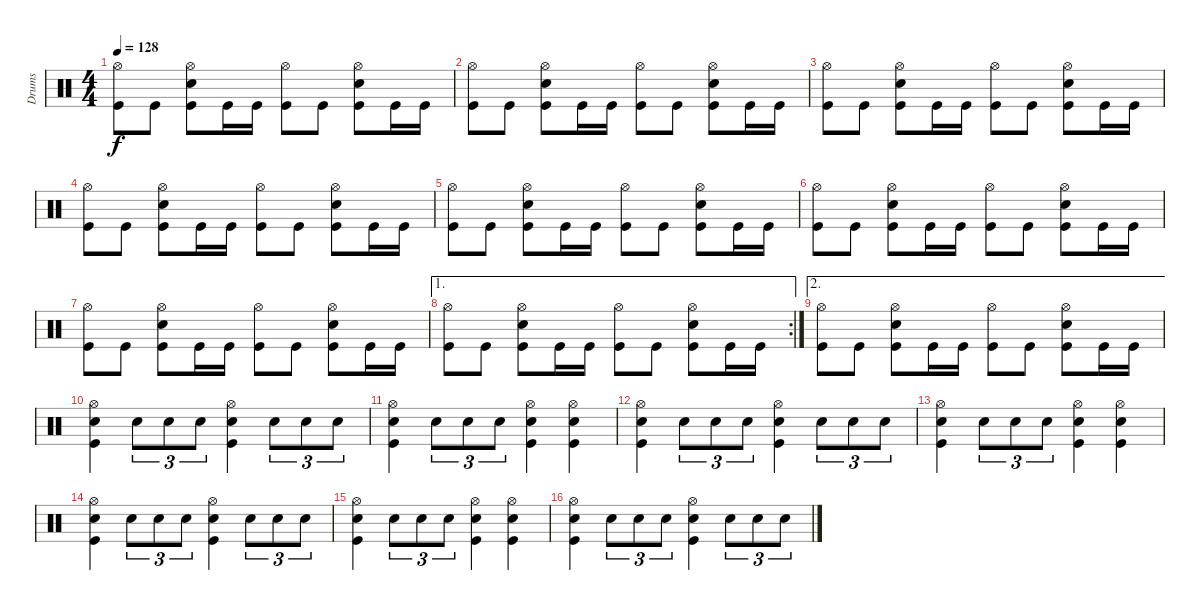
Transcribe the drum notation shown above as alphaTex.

\track ("Drums" "Drums") {instrument percussion}
\staff {score}
\articulation defaults
\ts (4 4)
\tempo 128
\clef neutral
\ks c
("Hi-Hat (open)" "Kick (hit)").8{dy f} "Kick (hit)".8 ("Hi-Hat (open)" "Snare (hit) 2" "Kick (hit)").8 "Kick (hit)".16 "Kick (hit)".16 ("Hi-Hat (open)" "Kick (hit)").8 "Kick (hit)".8 ("Hi-Hat (open)" "Snare (hit) 2" "Kick (hit)").8 "Kick (hit)".16 "Kick (hit)".16 |
("Hi-Hat (open)" "Kick (hit)").8 "Kick (hit)".8 ("Hi-Hat (open)" "Snare (hit) 2" "Kick (hit)").8 "Kick (hit)".16 "Kick (hit)".16 ("Hi-Hat (open)" "Kick (hit)").8 "Kick (hit)".8 ("Hi-Hat (open)" "Snare (hit) 2" "Kick (hit)").8 "Kick (hit)".16 "Kick (hit)".16 |
("Hi-Hat (open)" "Kick (hit)").8 "Kick (hit)".8 ("Hi-Hat (open)" "Snare (hit) 2" "Kick (hit)").8 "Kick (hit)".16 "Kick (hit)".16 ("Hi-Hat (open)" "Kick (hit)").8 "Kick (hit)".8 ("Hi-Hat (open)" "Snare (hit) 2" "Kick (hit)").8 "Kick (hit)".16 "Kick (hit)".16 |
("Hi-Hat (open)" "Kick (hit)").8 "Kick (hit)".8 ("Hi-Hat (open)" "Snare (hit) 2" "Kick (hit)").8 "Kick (hit)".16 "Kick (hit)".16 ("Hi-Hat (open)" "Kick (hit)").8 "Kick (hit)".8 ("Hi-Hat (open)" "Snare (hit) 2" "Kick (hit)").8 "Kick (hit)".16 "Kick (hit)".16 |
("Hi-Hat (open)" "Kick (hit)").8 "Kick (hit)".8 ("Hi-Hat (open)" "Snare (hit) 2" "Kick (hit)").8 "Kick (hit)".16 "Kick (hit)".16 ("Hi-Hat (open)" "Kick (hit)").8 "Kick (hit)".8 ("Hi-Hat (open)" "Snare (hit) 2" "Kick (hit)").8 "Kick (hit)".16 "Kick (hit)".16 |
("Hi-Hat (open)" "Kick (hit)").8 "Kick (hit)".8 ("Hi-Hat (open)" "Snare (hit) 2" "Kick (hit)").8 "Kick (hit)".16 "Kick (hit)".16 ("Hi-Hat (open)" "Kick (hit)").8 "Kick (hit)".8 ("Hi-Hat (open)" "Snare (hit) 2" "Kick (hit)").8 "Kick (hit)".16 "Kick (hit)".16 |
("Hi-Hat (open)" "Kick (hit)").8 "Kick (hit)".8 ("Hi-Hat (open)" "Snare (hit) 2" "Kick (hit)").8 "Kick (hit)".16 "Kick (hit)".16 ("Hi-Hat (open)" "Kick (hit)").8 "Kick (hit)".8 ("Hi-Hat (open)" "Snare (hit) 2" "Kick (hit)").8 "Kick (hit)".16 "Kick (hit)".16 |
\ae 1
\rc 2
("Hi-Hat (open)" "Kick (hit)").8 "Kick (hit)".8 ("Hi-Hat (open)" "Snare (hit) 2" "Kick (hit)").8 "Kick (hit)".16 "Kick (hit)".16 ("Hi-Hat (open)" "Kick (hit)").8 "Kick (hit)".8 ("Hi-Hat (open)" "Snare (hit) 2" "Kick (hit)").8 "Kick (hit)".16 "Kick (hit)".16 |
\ae 2
("Hi-Hat (open)" "Kick (hit)").8 "Kick (hit)".8 ("Hi-Hat (open)" "Snare (hit) 2" "Kick (hit)").8 "Kick (hit)".16 "Kick (hit)".16 ("Hi-Hat (open)" "Kick (hit)").8 "Kick (hit)".8 ("Hi-Hat (open)" "Snare (hit) 2" "Kick (hit)").8 "Kick (hit)".16 "Kick (hit)".16 |
("Hi-Hat (open)" "Snare (hit) 2" "Kick (hit)").4 "Snare (hit) 2".8{tu (3 2)} "Snare (hit) 2".8{tu (3 2)} "Snare (hit) 2".8{tu (3 2)} ("Hi-Hat (open)" "Snare (hit) 2" "Kick (hit)").4 "Snare (hit) 2".8{tu (3 2)} "Snare (hit) 2".8{tu (3 2)} "Snare (hit) 2".8{tu (3 2)} |
("Hi-Hat (open)" "Snare (hit) 2" "Kick (hit)").4 "Snare (hit) 2".8{tu (3 2)} "Snare (hit) 2".8{tu (3 2)} "Snare (hit) 2".8{tu (3 2)} ("Hi-Hat (open)" "Snare (hit) 2" "Kick (hit)").4 ("Hi-Hat (open)" "Snare (hit) 2" "Kick (hit)").4 |
("Hi-Hat (open)" "Snare (hit) 2" "Kick (hit)").4 "Snare (hit) 2".8{tu (3 2)} "Snare (hit) 2".8{tu (3 2)} "Snare (hit) 2".8{tu (3 2)} ("Hi-Hat (open)" "Snare (hit) 2" "Kick (hit)").4 "Snare (hit) 2".8{tu (3 2)} "Snare (hit) 2".8{tu (3 2)} "Snare (hit) 2".8{tu (3 2)} |
("Hi-Hat (open)" "Snare (hit) 2" "Kick (hit)").4 "Snare (hit) 2".8{tu (3 2)} "Snare (hit) 2".8{tu (3 2)} "Snare (hit) 2".8{tu (3 2)} ("Hi-Hat (open)" "Snare (hit) 2" "Kick (hit)").4 ("Hi-Hat (open)" "Snare (hit) 2" "Kick (hit)").4 |
("Hi-Hat (open)" "Snare (hit) 2" "Kick (hit)").4 "Snare (hit) 2".8{tu (3 2)} "Snare (hit) 2".8{tu (3 2)} "Snare (hit) 2".8{tu (3 2)} ("Hi-Hat (open)" "Snare (hit) 2" "Kick (hit)").4 "Snare (hit) 2".8{tu (3 2)} "Snare (hit) 2".8{tu (3 2)} "Snare (hit) 2".8{tu (3 2)} |
("Hi-Hat (open)" "Snare (hit) 2" "Kick (hit)").4 "Snare (hit) 2".8{tu (3 2)} "Snare (hit) 2".8{tu (3 2)} "Snare (hit) 2".8{tu (3 2)} ("Hi-Hat (open)" "Snare (hit) 2" "Kick (hit)").4 ("Hi-Hat (open)" "Snare (hit) 2" "Kick (hit)").4 |
("Hi-Hat (open)" "Snare (hit) 2" "Kick (hit)").4 "Snare (hit) 2".8{tu (3 2)} "Snare (hit) 2".8{tu (3 2)} "Snare (hit) 2".8{tu (3 2)} ("Hi-Hat (open)" "Snare (hit) 2" "Kick (hit)").4 "Snare (hit) 2".8{tu (3 2)} "Snare (hit) 2".8{tu (3 2)} "Snare (hit) 2".8{tu (3 2)}
